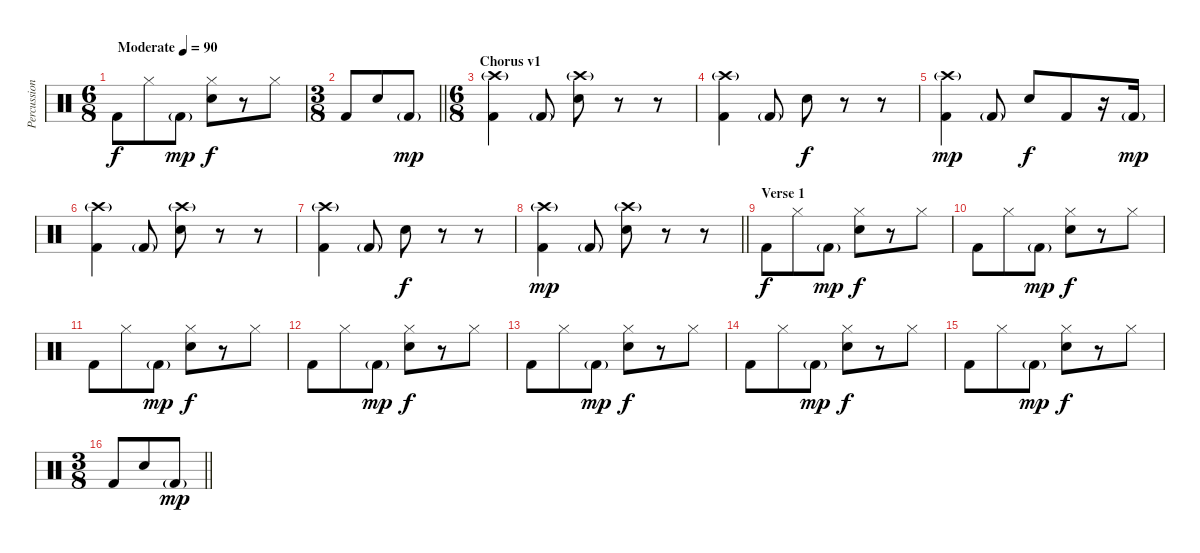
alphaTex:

\track ("Percussion" "Percussion") {instrument percussion}
\staff {score}
\articulation defaults
\ts (6 8)
\tempo (90 "Moderate")
\clef neutral
\ks c "Kick (hit) 2".8{dy f} "Hi-Hat (closed)".8 "Kick (hit) 2"{g}.8{dy mp}
("Hi-Hat (closed)" "Snare (hit) 2").8{dy f} r.8 "Hi-Hat (closed)".8 |
\ts (3 8)
\barLineRight lightlight "Kick (hit) 2".8 "Snare (hit) 2".8 "Kick (hit) 2"{g}.8{dy mp}
|
\ts (6 8)
\section ("" "Chorus v1")
("Crash high (hit)"{g} "Kick (hit) 2").4 "Kick (hit) 2"{g}.8 ("Crash high (hit)"{g} "Snare (hit) 2").8 r.8 r.8 |
("Crash high (hit)"{g} "Kick (hit) 2").4 "Kick (hit) 2"{g}.8 "Snare (hit) 2".8{dy f} r.8 r.8 |
("Crash high (hit)"{g} "Kick (hit) 2").4{dy mp} "Kick (hit) 2"{g}.8 "Snare (hit) 2".8{dy f} "Kick (hit) 2".8 r.16 "Kick (hit) 2"{g}.16{dy mp} |
("Crash high (hit)"{g} "Kick (hit) 2").4 "Kick (hit) 2"{g}.8 ("Crash high (hit)"{g} "Snare (hit) 2").8 r.8 r.8 |
("Crash high (hit)"{g} "Kick (hit) 2").4 "Kick (hit) 2"{g}.8 "Snare (hit) 2".8{dy f} r.8 r.8 |
\barLineRight lightlight
("Crash high (hit)"{g} "Kick (hit) 2").4{dy mp} "Kick (hit) 2"{g}.8 ("Crash high (hit)"{g} "Snare (hit) 2").8 r.8 r.8 |
\section ("" "Verse 1")
"Kick (hit) 2".8{dy f} "Hi-Hat (closed)".8 "Kick (hit) 2"{g}.8{dy mp} ("Hi-Hat (closed)" "Snare (hit) 2").8{dy f} r.8 "Hi-Hat (closed)".8 |
"Kick (hit) 2".8 "Hi-Hat (closed)".8 "Kick (hit) 2"{g}.8{dy mp} ("Hi-Hat (closed)" "Snare (hit) 2").8{dy f} r.8 "Hi-Hat (closed)".8 |
"Kick (hit) 2".8 "Hi-Hat (closed)".8 "Kick (hit) 2"{g}.8{dy mp} ("Hi-Hat (closed)" "Snare (hit) 2").8{dy f} r.8 "Hi-Hat (closed)".8 |
"Kick (hit) 2".8 "Hi-Hat (closed)".8 "Kick (hit) 2"{g}.8{dy mp} ("Hi-Hat (closed)" "Snare (hit) 2").8{dy f} r.8 "Hi-Hat (closed)".8 |
"Kick (hit) 2".8 "Hi-Hat (closed)".8 "Kick (hit) 2"{g}.8{dy mp} ("Hi-Hat (closed)" "Snare (hit) 2").8{dy f} r.8 "Hi-Hat (closed)".8 |
"Kick (hit) 2".8 "Hi-Hat (closed)".8 "Kick (hit) 2"{g}.8{dy mp} ("Hi-Hat (closed)" "Snare (hit) 2").8{dy f} r.8 "Hi-Hat (closed)".8 |
"Kick (hit) 2".8 "Hi-Hat (closed)".8 "Kick (hit) 2"{g}.8{dy mp} ("Hi-Hat (closed)" "Snare (hit) 2").8{dy f} r.8 "Hi-Hat (closed)".8 |
\ts (3 8)
\barLineRight lightlight "Kick (hit) 2".8 "Snare (hit) 2".8 "Kick (hit) 2"{g}.8{dy mp}
